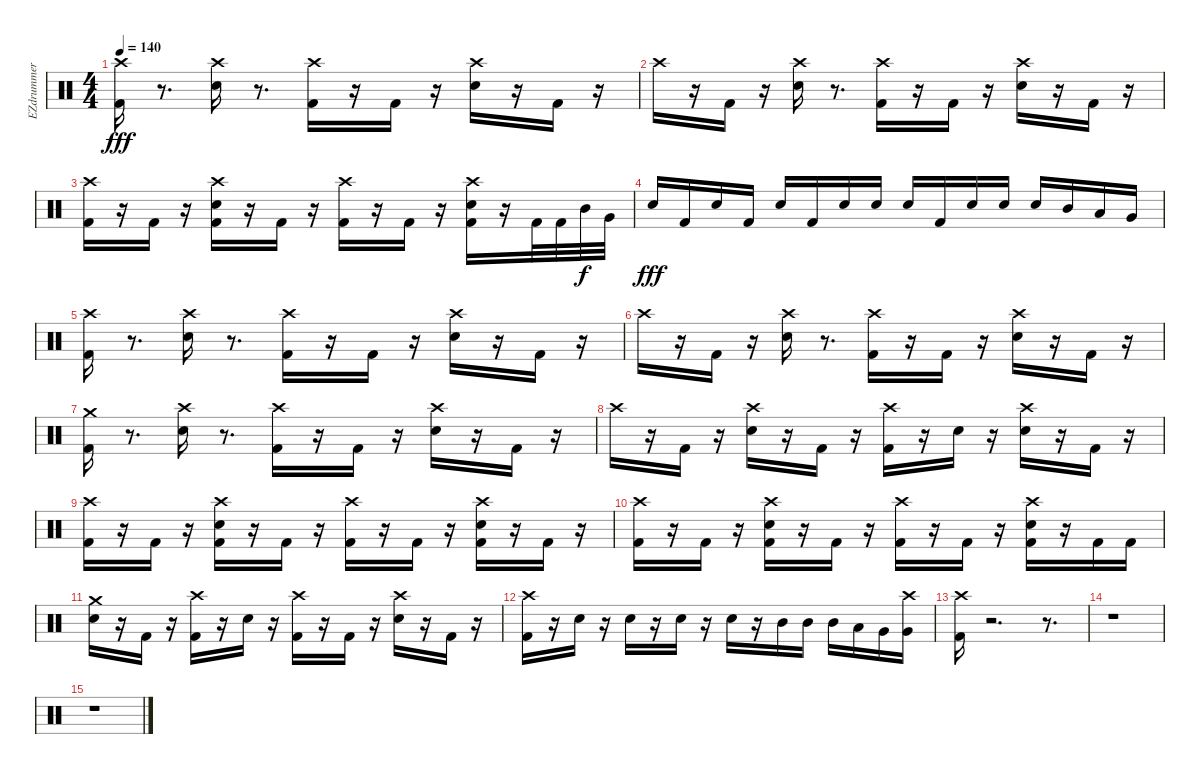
\track ("EZdrummer" "EZdrummer") {instrument percussion}
\staff {score}
\articulation defaults
\ts (4 4)
\tempo 140
\clef neutral
\ks c
("Crash high (hit)" "Kick (hit) 2").16{dy fff} r.8{d} ("Crash high (hit)" "Snare (hit) 2").16 r.8{d} ("Crash high (hit)" "Kick (hit) 2").16 r.16 "Kick (hit) 2".16 r.16 ("Crash high (hit)" "Snare (hit) 2").16 r.16 "Kick (hit) 2".16 r.16 |
"Crash high (hit)".16 r.16 "Kick (hit) 2".16 r.16 ("Crash high (hit)" "Snare (hit) 2").16 r.8{d} ("Crash high (hit)" "Kick (hit) 2").16 r.16 "Kick (hit) 2".16 r.16 ("Crash high (hit)" "Snare (hit) 2").16 r.16 "Kick (hit) 2".16 r.16 |
("Crash high (hit)" "Kick (hit) 2").16 r.16 "Kick (hit) 2".16 r.16 ("Crash high (hit)" "Kick (hit) 2" "Snare (hit) 2").16 r.16 "Kick (hit) 2".16 r.16 ("Crash high (hit)" "Kick (hit) 2").16 r.16 "Kick (hit) 2".16 r.16 ("Crash high (hit)" "Kick (hit) 2" "Snare (hit) 2").16 r.16 "Kick (hit) 2".32 "Kick (hit) 2".32 "Mid Tom (hit)".32{dy f} "Very Low Tom (hit)".32 |
"Snare (hit) 2".16{dy fff} "Kick (hit) 2".16 "Snare (hit) 2".16 "Kick (hit) 2".16 "Snare (hit) 2".16 "Kick (hit) 2".16 "Snare (hit) 2".16 "Snare (hit) 2".16 "Snare (hit) 2".16 "Kick (hit) 2".16 "Snare (hit) 2".16 "Snare (hit) 2".16 "Snare (hit) 2".16 "Mid Tom (hit)".16 "Low Tom (hit)".16 "Very Low Tom (hit)".16 |
("Crash high (hit)" "Kick (hit) 2").16 r.8{d} ("Snare (hit) 2" "Crash high (hit)").16 r.8{d} ("Kick (hit) 2" "Crash high (hit)").16 r.16 "Kick (hit) 2".16 r.16 ("Snare (hit) 2" "Crash high (hit)").16 r.16 "Kick (hit) 2".16 r.16 |
"Crash high (hit)".16 r.16 "Kick (hit) 2".16 r.16 ("Snare (hit) 2" "Crash high (hit)").16 r.8{d} ("Kick (hit) 2" "Crash high (hit)").16 r.16 "Kick (hit) 2".16 r.16 ("Snare (hit) 2" "Crash high (hit)").16 r.16 "Kick (hit) 2".16 r.16 |
("Kick (hit) 2" "Crash medium (hit)").16 r.8{d} ("Snare (hit) 2" "Crash high (hit)").16 r.8{d} ("Kick (hit) 2" "Crash high (hit)").16 r.16 "Kick (hit) 2".16 r.16 ("Snare (hit) 2" "Crash high (hit)").16 r.16 "Kick (hit) 2".16 r.16 |
"Crash high (hit)".16 r.16 "Kick (hit) 2".16 r.16 ("Snare (hit) 2" "Crash high (hit)").16 r.16 "Kick (hit) 2".16 r.16 ("Kick (hit) 2" "Crash high (hit)").16 r.16 "Snare (hit) 2".16 r.16 ("Snare (hit) 2" "Crash high (hit)").16 r.16 "Kick (hit) 2".16 r.16 |
("Kick (hit) 2" "Crash high (hit)").16 r.16 "Kick (hit) 2".16 r.16 ("Kick (hit) 2" "Snare (hit) 2" "Crash high (hit)").16 r.16 "Kick (hit) 2".16 r.16 ("Kick (hit) 2" "Crash high (hit)").16 r.16 "Kick (hit) 2".16 r.16 ("Kick (hit) 2" "Snare (hit) 2" "Crash high (hit)").16 r.16 "Kick (hit) 2".16 r.16 |
("Kick (hit) 2" "Crash high (hit)").16 r.16 "Kick (hit) 2".16 r.16 ("Kick (hit) 2" "Snare (hit) 2" "Crash high (hit)").16 r.16 "Kick (hit) 2".16 r.16 ("Kick (hit) 2" "Crash high (hit)").16 r.16 "Kick (hit) 2".16 r.16 ("Kick (hit) 2" "Snare (hit) 2" "Crash high (hit)").16 r.16 "Kick (hit) 2".16 "Kick (hit) 2".16 |
("Snare (hit) 2" "Crash medium (hit)").16 r.16 "Kick (hit) 2".16 r.16 ("Crash high (hit)" "Kick (hit) 2").16 r.16 "Snare (hit) 2".16 r.16 ("Crash high (hit)" "Kick (hit) 2").16 r.16 "Kick (hit) 2".16 r.16 ("Crash high (hit)" "Snare (hit) 2").16 r.16 "Kick (hit) 2".16 r.16 |
("Crash high (hit)" "Kick (hit) 2").16 r.16 "Snare (hit) 2".16 r.16 "Snare (hit) 2".16 r.16 "Snare (hit) 2".16 r.16 "Snare (hit) 2".16 r.16 "Mid Tom (hit)".16 "Mid Tom (hit)".16 "Mid Tom (hit)".16 "Low Tom (hit)".16 "Very Low Tom (hit)".16 ("Crash high (hit)" "Very Low Tom (hit)").16 |
("Kick (hit) 2" "Crash high (hit)").16 r.2{d} r.8{d} |
r.1 |
r.1
